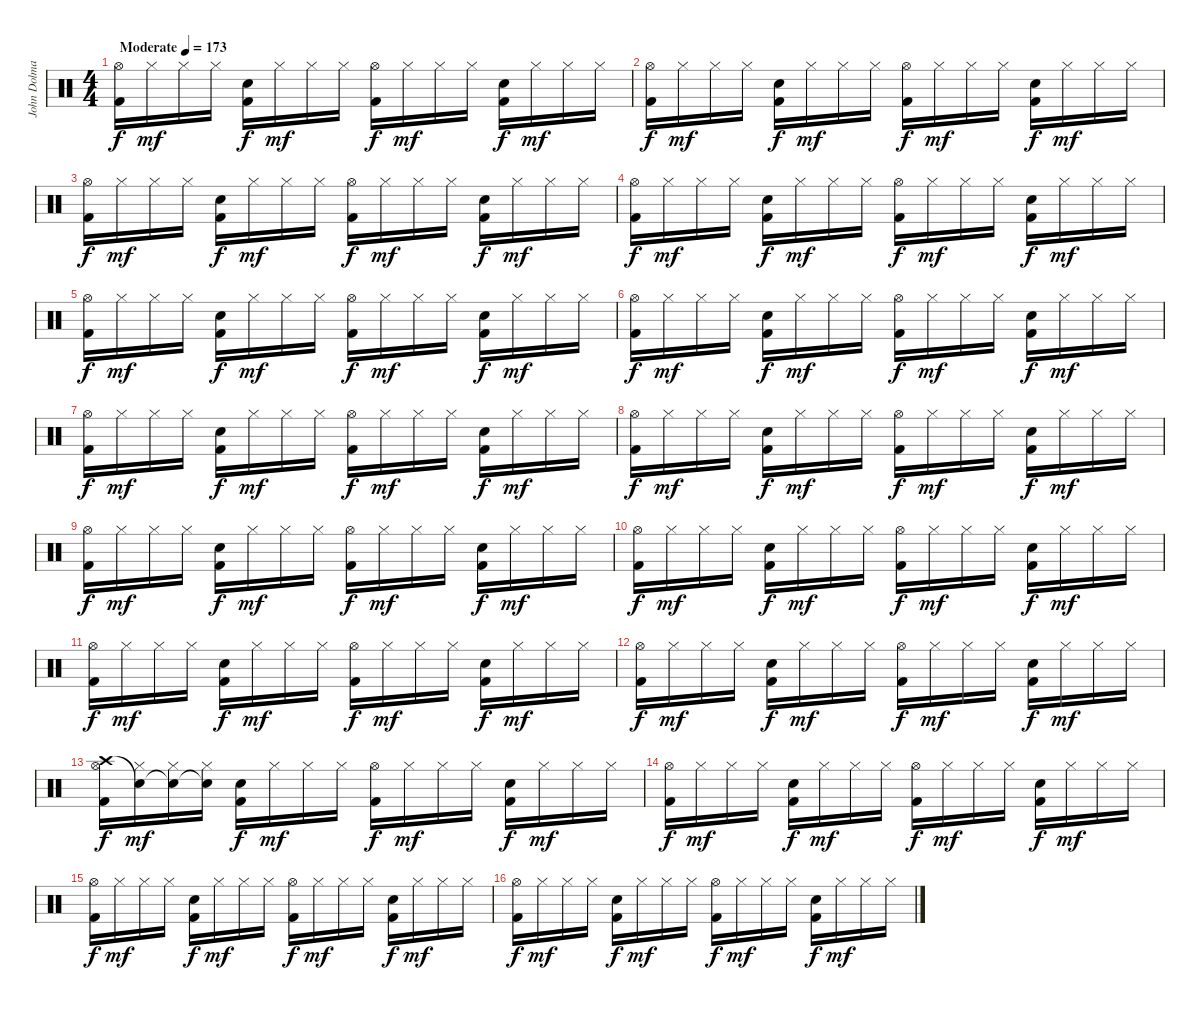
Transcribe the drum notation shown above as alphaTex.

\track ("John Dolmayan" "John Dolma") {instrument percussion}
\staff {score}
\articulation defaults
\ts (4 4)
\tempo (173 "Moderate")
\clef neutral
\ks c
("Hi-Hat (open)" "Kick (hit) 2").16{dy f} "Hi-Hat (closed)".16{dy mf} "Hi-Hat (closed)".16 "Hi-Hat (closed)".16 ("Electric Snare (hit)" "Kick (hit) 2").16{dy f} "Hi-Hat (closed)".16{dy mf} "Hi-Hat (closed)".16 "Hi-Hat (closed)".16 ("Hi-Hat (open)" "Kick (hit) 2").16{dy f} "Hi-Hat (closed)".16{dy mf} "Hi-Hat (closed)".16 "Hi-Hat (closed)".16 ("Electric Snare (hit)" "Kick (hit) 2").16{dy f} "Hi-Hat (closed)".16{dy mf} "Hi-Hat (closed)".16 "Hi-Hat (closed)".16 |
("Hi-Hat (open)" "Kick (hit) 2").16{dy f} "Hi-Hat (closed)".16{dy mf} "Hi-Hat (closed)".16 "Hi-Hat (closed)".16 ("Electric Snare (hit)" "Kick (hit) 2").16{dy f} "Hi-Hat (closed)".16{dy mf} "Hi-Hat (closed)".16 "Hi-Hat (closed)".16 ("Hi-Hat (open)" "Kick (hit) 2").16{dy f} "Hi-Hat (closed)".16{dy mf} "Hi-Hat (closed)".16 "Hi-Hat (closed)".16 ("Electric Snare (hit)" "Kick (hit) 2").16{dy f} "Hi-Hat (closed)".16{dy mf} "Hi-Hat (closed)".16 "Hi-Hat (closed)".16 |
("Hi-Hat (open)" "Kick (hit) 2").16{dy f} "Hi-Hat (closed)".16{dy mf} "Hi-Hat (closed)".16 "Hi-Hat (closed)".16 ("Electric Snare (hit)" "Kick (hit) 2").16{dy f} "Hi-Hat (closed)".16{dy mf} "Hi-Hat (closed)".16 "Hi-Hat (closed)".16 ("Hi-Hat (open)" "Kick (hit) 2").16{dy f} "Hi-Hat (closed)".16{dy mf} "Hi-Hat (closed)".16 "Hi-Hat (closed)".16 ("Electric Snare (hit)" "Kick (hit) 2").16{dy f} "Hi-Hat (closed)".16{dy mf} "Hi-Hat (closed)".16 "Hi-Hat (closed)".16 |
("Hi-Hat (open)" "Kick (hit) 2").16{dy f} "Hi-Hat (closed)".16{dy mf} "Hi-Hat (closed)".16 "Hi-Hat (closed)".16 ("Electric Snare (hit)" "Kick (hit) 2").16{dy f} "Hi-Hat (closed)".16{dy mf} "Hi-Hat (closed)".16 "Hi-Hat (closed)".16 ("Hi-Hat (open)" "Kick (hit) 2").16{dy f} "Hi-Hat (closed)".16{dy mf} "Hi-Hat (closed)".16 "Hi-Hat (closed)".16 ("Electric Snare (hit)" "Kick (hit) 2").16{dy f} "Hi-Hat (closed)".16{dy mf} "Hi-Hat (closed)".16 "Hi-Hat (closed)".16 |
("Hi-Hat (open)" "Kick (hit) 2").16{dy f} "Hi-Hat (closed)".16{dy mf} "Hi-Hat (closed)".16 "Hi-Hat (closed)".16 ("Electric Snare (hit)" "Kick (hit) 2").16{dy f} "Hi-Hat (closed)".16{dy mf} "Hi-Hat (closed)".16 "Hi-Hat (closed)".16 ("Hi-Hat (open)" "Kick (hit) 2").16{dy f} "Hi-Hat (closed)".16{dy mf} "Hi-Hat (closed)".16 "Hi-Hat (closed)".16 ("Electric Snare (hit)" "Kick (hit) 2").16{dy f} "Hi-Hat (closed)".16{dy mf} "Hi-Hat (closed)".16 "Hi-Hat (closed)".16 |
("Hi-Hat (open)" "Kick (hit) 2").16{dy f} "Hi-Hat (closed)".16{dy mf} "Hi-Hat (closed)".16 "Hi-Hat (closed)".16 ("Electric Snare (hit)" "Kick (hit) 2").16{dy f} "Hi-Hat (closed)".16{dy mf} "Hi-Hat (closed)".16 "Hi-Hat (closed)".16 ("Hi-Hat (open)" "Kick (hit) 2").16{dy f} "Hi-Hat (closed)".16{dy mf} "Hi-Hat (closed)".16 "Hi-Hat (closed)".16 ("Electric Snare (hit)" "Kick (hit) 2").16{dy f} "Hi-Hat (closed)".16{dy mf} "Hi-Hat (closed)".16 "Hi-Hat (closed)".16 |
("Hi-Hat (open)" "Kick (hit) 2").16{dy f} "Hi-Hat (closed)".16{dy mf} "Hi-Hat (closed)".16 "Hi-Hat (closed)".16 ("Electric Snare (hit)" "Kick (hit) 2").16{dy f} "Hi-Hat (closed)".16{dy mf} "Hi-Hat (closed)".16 "Hi-Hat (closed)".16 ("Hi-Hat (open)" "Kick (hit) 2").16{dy f} "Hi-Hat (closed)".16{dy mf} "Hi-Hat (closed)".16 "Hi-Hat (closed)".16 ("Electric Snare (hit)" "Kick (hit) 2").16{dy f} "Hi-Hat (closed)".16{dy mf} "Hi-Hat (closed)".16 "Hi-Hat (closed)".16 |
("Hi-Hat (open)" "Kick (hit) 2").16{dy f} "Hi-Hat (closed)".16{dy mf} "Hi-Hat (closed)".16 "Hi-Hat (closed)".16 ("Electric Snare (hit)" "Kick (hit) 2").16{dy f} "Hi-Hat (closed)".16{dy mf} "Hi-Hat (closed)".16 "Hi-Hat (closed)".16 ("Hi-Hat (open)" "Kick (hit) 2").16{dy f} "Hi-Hat (closed)".16{dy mf} "Hi-Hat (closed)".16 "Hi-Hat (closed)".16 ("Electric Snare (hit)" "Kick (hit) 2").16{dy f} "Hi-Hat (closed)".16{dy mf} "Hi-Hat (closed)".16 "Hi-Hat (closed)".16 |
("Hi-Hat (open)" "Kick (hit) 2").16{dy f} "Hi-Hat (closed)".16{dy mf} "Hi-Hat (closed)".16 "Hi-Hat (closed)".16 ("Electric Snare (hit)" "Kick (hit) 2").16{dy f} "Hi-Hat (closed)".16{dy mf} "Hi-Hat (closed)".16 "Hi-Hat (closed)".16 ("Hi-Hat (open)" "Kick (hit) 2").16{dy f} "Hi-Hat (closed)".16{dy mf} "Hi-Hat (closed)".16 "Hi-Hat (closed)".16 ("Electric Snare (hit)" "Kick (hit) 2").16{dy f} "Hi-Hat (closed)".16{dy mf} "Hi-Hat (closed)".16 "Hi-Hat (closed)".16 |
("Hi-Hat (open)" "Kick (hit) 2").16{dy f} "Hi-Hat (closed)".16{dy mf} "Hi-Hat (closed)".16 "Hi-Hat (closed)".16 ("Electric Snare (hit)" "Kick (hit) 2").16{dy f} "Hi-Hat (closed)".16{dy mf} "Hi-Hat (closed)".16 "Hi-Hat (closed)".16 ("Hi-Hat (open)" "Kick (hit) 2").16{dy f} "Hi-Hat (closed)".16{dy mf} "Hi-Hat (closed)".16 "Hi-Hat (closed)".16 ("Electric Snare (hit)" "Kick (hit) 2").16{dy f} "Hi-Hat (closed)".16{dy mf} "Hi-Hat (closed)".16 "Hi-Hat (closed)".16 |
("Hi-Hat (open)" "Kick (hit) 2").16{dy f} "Hi-Hat (closed)".16{dy mf} "Hi-Hat (closed)".16 "Hi-Hat (closed)".16 ("Electric Snare (hit)" "Kick (hit) 2").16{dy f} "Hi-Hat (closed)".16{dy mf} "Hi-Hat (closed)".16 "Hi-Hat (closed)".16 ("Hi-Hat (open)" "Kick (hit) 2").16{dy f} "Hi-Hat (closed)".16{dy mf} "Hi-Hat (closed)".16 "Hi-Hat (closed)".16 ("Electric Snare (hit)" "Kick (hit) 2").16{dy f} "Hi-Hat (closed)".16{dy mf} "Hi-Hat (closed)".16 "Hi-Hat (closed)".16 |
("Hi-Hat (open)" "Kick (hit) 2").16{dy f} "Hi-Hat (closed)".16{dy mf} "Hi-Hat (closed)".16 "Hi-Hat (closed)".16 ("Electric Snare (hit)" "Kick (hit) 2").16{dy f} "Hi-Hat (closed)".16{dy mf} "Hi-Hat (closed)".16 "Hi-Hat (closed)".16 ("Hi-Hat (open)" "Kick (hit) 2").16{dy f} "Hi-Hat (closed)".16{dy mf} "Hi-Hat (closed)".16 "Hi-Hat (closed)".16 ("Electric Snare (hit)" "Kick (hit) 2").16{dy f} "Hi-Hat (closed)".16{dy mf} "Hi-Hat (closed)".16 "Hi-Hat (closed)".16 |
("Crash high (hit)" "Hi-Hat (open)" "Kick (hit) 2").16{dy f} ("Snare (hit)"{t} "Hi-Hat (closed)").16{dy mf} ("Snare (hit)"{t} "Hi-Hat (closed)").16 ("Snare (hit)"{t} "Hi-Hat (closed)").16 ("Electric Snare (hit)" "Kick (hit) 2").16{dy f} "Hi-Hat (closed)".16{dy mf} "Hi-Hat (closed)".16 "Hi-Hat (closed)".16 ("Hi-Hat (open)" "Kick (hit) 2").16{dy f} "Hi-Hat (closed)".16{dy mf} "Hi-Hat (closed)".16 "Hi-Hat (closed)".16 ("Electric Snare (hit)" "Kick (hit) 2").16{dy f} "Hi-Hat (closed)".16{dy mf} "Hi-Hat (closed)".16 "Hi-Hat (closed)".16 |
("Hi-Hat (open)" "Kick (hit) 2").16{dy f} "Hi-Hat (closed)".16{dy mf} "Hi-Hat (closed)".16 "Hi-Hat (closed)".16 ("Electric Snare (hit)" "Kick (hit) 2").16{dy f} "Hi-Hat (closed)".16{dy mf} "Hi-Hat (closed)".16 "Hi-Hat (closed)".16 ("Hi-Hat (open)" "Kick (hit) 2").16{dy f} "Hi-Hat (closed)".16{dy mf} "Hi-Hat (closed)".16 "Hi-Hat (closed)".16 ("Electric Snare (hit)" "Kick (hit) 2").16{dy f} "Hi-Hat (closed)".16{dy mf} "Hi-Hat (closed)".16 "Hi-Hat (closed)".16 |
("Hi-Hat (open)" "Kick (hit) 2").16{dy f} "Hi-Hat (closed)".16{dy mf} "Hi-Hat (closed)".16 "Hi-Hat (closed)".16 ("Electric Snare (hit)" "Kick (hit) 2").16{dy f} "Hi-Hat (closed)".16{dy mf} "Hi-Hat (closed)".16 "Hi-Hat (closed)".16 ("Hi-Hat (open)" "Kick (hit) 2").16{dy f} "Hi-Hat (closed)".16{dy mf} "Hi-Hat (closed)".16 "Hi-Hat (closed)".16 ("Electric Snare (hit)" "Kick (hit) 2").16{dy f} "Hi-Hat (closed)".16{dy mf} "Hi-Hat (closed)".16 "Hi-Hat (closed)".16 |
("Hi-Hat (open)" "Kick (hit) 2").16{dy f} "Hi-Hat (closed)".16{dy mf} "Hi-Hat (closed)".16 "Hi-Hat (closed)".16 ("Electric Snare (hit)" "Kick (hit) 2").16{dy f} "Hi-Hat (closed)".16{dy mf} "Hi-Hat (closed)".16 "Hi-Hat (closed)".16 ("Hi-Hat (open)" "Kick (hit) 2").16{dy f} "Hi-Hat (closed)".16{dy mf} "Hi-Hat (closed)".16 "Hi-Hat (closed)".16 ("Electric Snare (hit)" "Kick (hit) 2").16{dy f} "Hi-Hat (closed)".16{dy mf} "Hi-Hat (closed)".16 "Hi-Hat (closed)".16
